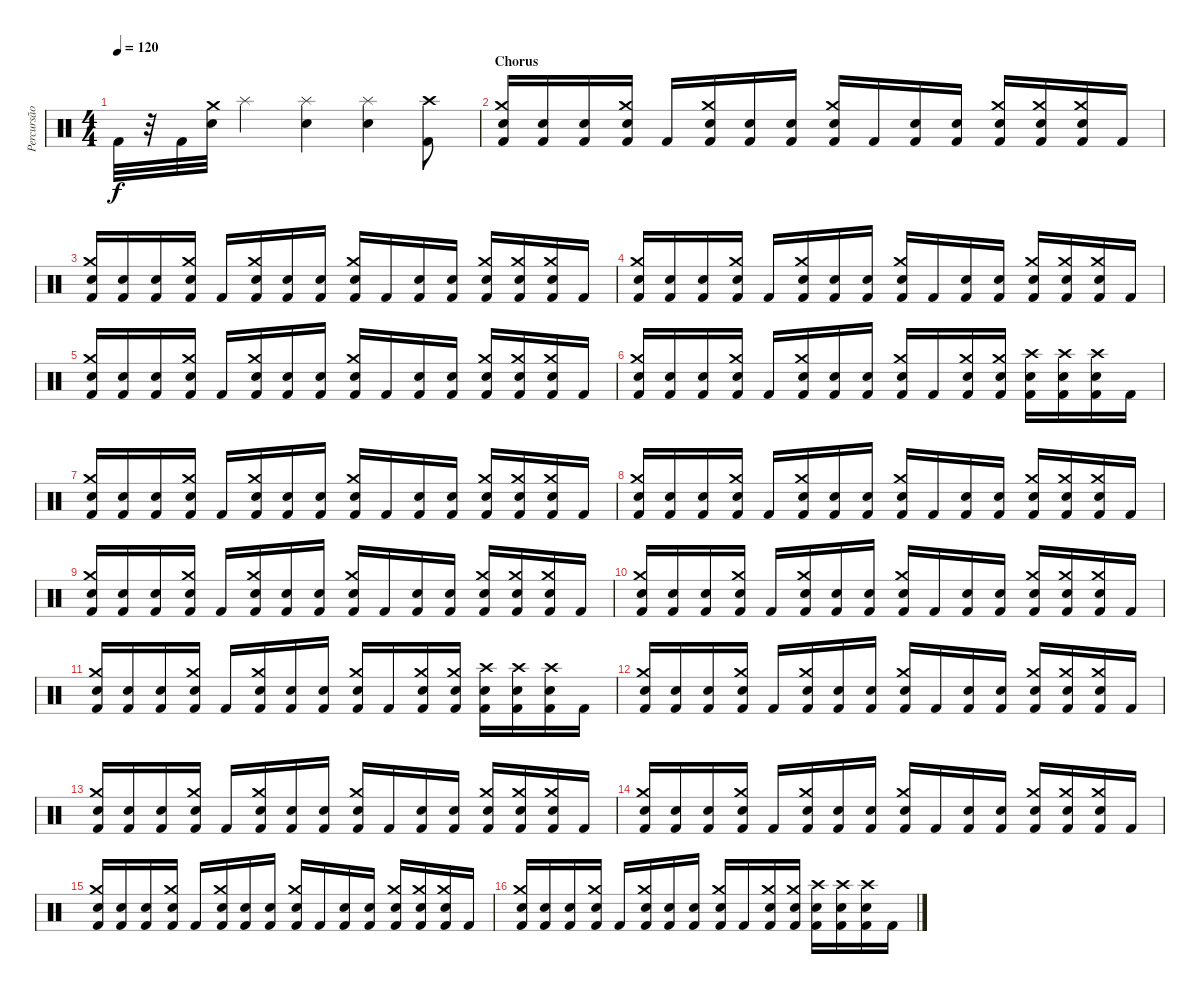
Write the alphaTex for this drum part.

\track ("Percursão" "Percursão") {instrument percussion}
\staff {score}
\articulation defaults
\ts (4 4)
\tempo 120
\clef neutral
\ks c "Kick (hit) 2".32{dy f}
r.32 "Kick (hit) 2".32 ("Crash medium (hit)" "Snare (hit) 2").32 "Splash (hit)".4 ("Snare (hit) 2" "Splash (hit)").4 ("Snare (hit) 2" "Splash (hit)").4 ("Kick (hit) 2" "Crash high (hit)").8 |
\section ("" "Chorus")
("Kick (hit) 2" "Snare (hit) 2" "Crash medium (hit)").16 ("Kick (hit) 2" "Snare (hit) 2").16 ("Kick (hit) 2" "Snare (hit) 2").16 ("Kick (hit) 2" "Snare (hit) 2" "Crash medium (hit)").16 "Kick (hit) 2".16 ("Kick (hit) 2" "Snare (hit) 2" "Crash medium (hit)").16 ("Kick (hit) 2" "Snare (hit) 2").16 ("Kick (hit) 2" "Snare (hit) 2").16 ("Kick (hit) 2" "Snare (hit) 2" "Crash medium (hit)").16 "Kick (hit) 2".16 ("Kick (hit) 2" "Snare (hit) 2").16 ("Kick (hit) 2" "Snare (hit) 2").16 ("Kick (hit) 2" "Snare (hit) 2" "Crash medium (hit)").16 ("Kick (hit) 2" "Snare (hit) 2" "Crash medium (hit)").16 ("Kick (hit) 2" "Snare (hit) 2" "Crash medium (hit)").16 "Kick (hit) 2".16 |
("Kick (hit) 2" "Snare (hit) 2" "Crash medium (hit)").16 ("Kick (hit) 2" "Snare (hit) 2").16 ("Kick (hit) 2" "Snare (hit) 2").16 ("Kick (hit) 2" "Snare (hit) 2" "Crash medium (hit)").16 "Kick (hit) 2".16 ("Kick (hit) 2" "Snare (hit) 2" "Crash medium (hit)").16 ("Kick (hit) 2" "Snare (hit) 2").16 ("Kick (hit) 2" "Snare (hit) 2").16 ("Kick (hit) 2" "Snare (hit) 2" "Crash medium (hit)").16 "Kick (hit) 2".16 ("Kick (hit) 2" "Snare (hit) 2").16 ("Kick (hit) 2" "Snare (hit) 2").16 ("Kick (hit) 2" "Snare (hit) 2" "Crash medium (hit)").16 ("Kick (hit) 2" "Snare (hit) 2" "Crash medium (hit)").16 ("Kick (hit) 2" "Snare (hit) 2" "Crash medium (hit)").16 "Kick (hit) 2".16 |
("Kick (hit) 2" "Snare (hit) 2" "Crash medium (hit)").16 ("Kick (hit) 2" "Snare (hit) 2").16 ("Kick (hit) 2" "Snare (hit) 2").16 ("Kick (hit) 2" "Snare (hit) 2" "Crash medium (hit)").16 "Kick (hit) 2".16 ("Kick (hit) 2" "Snare (hit) 2" "Crash medium (hit)").16 ("Kick (hit) 2" "Snare (hit) 2").16 ("Kick (hit) 2" "Snare (hit) 2").16 ("Kick (hit) 2" "Snare (hit) 2" "Crash medium (hit)").16 "Kick (hit) 2".16 ("Kick (hit) 2" "Snare (hit) 2").16 ("Kick (hit) 2" "Snare (hit) 2").16 ("Kick (hit) 2" "Snare (hit) 2" "Crash medium (hit)").16 ("Kick (hit) 2" "Snare (hit) 2" "Crash medium (hit)").16 ("Kick (hit) 2" "Snare (hit) 2" "Crash medium (hit)").16 "Kick (hit) 2".16 |
("Kick (hit) 2" "Snare (hit) 2" "Crash medium (hit)").16 ("Kick (hit) 2" "Snare (hit) 2").16 ("Kick (hit) 2" "Snare (hit) 2").16 ("Kick (hit) 2" "Snare (hit) 2" "Crash medium (hit)").16 "Kick (hit) 2".16 ("Kick (hit) 2" "Snare (hit) 2" "Crash medium (hit)").16 ("Kick (hit) 2" "Snare (hit) 2").16 ("Kick (hit) 2" "Snare (hit) 2").16 ("Kick (hit) 2" "Snare (hit) 2" "Crash medium (hit)").16 "Kick (hit) 2".16 ("Kick (hit) 2" "Snare (hit) 2").16 ("Kick (hit) 2" "Snare (hit) 2").16 ("Kick (hit) 2" "Snare (hit) 2" "Crash medium (hit)").16 ("Kick (hit) 2" "Snare (hit) 2" "Crash medium (hit)").16 ("Kick (hit) 2" "Snare (hit) 2" "Crash medium (hit)").16 "Kick (hit) 2".16 |
("Kick (hit) 2" "Snare (hit) 2" "Crash medium (hit)").16 ("Kick (hit) 2" "Snare (hit) 2").16 ("Kick (hit) 2" "Snare (hit) 2").16 ("Kick (hit) 2" "Snare (hit) 2" "Crash medium (hit)").16 "Kick (hit) 2".16 ("Kick (hit) 2" "Snare (hit) 2" "Crash medium (hit)").16 ("Kick (hit) 2" "Snare (hit) 2").16 ("Kick (hit) 2" "Snare (hit) 2").16 ("Kick (hit) 2" "Snare (hit) 2" "Crash medium (hit)").16 "Kick (hit) 2".16 ("Kick (hit) 2" "Snare (hit) 2" "Crash medium (hit)").16 ("Kick (hit) 2" "Snare (hit) 2" "Crash medium (hit)").16 ("Kick (hit) 2" "Snare (hit) 2" "Crash high (hit)").16 ("Kick (hit) 2" "Snare (hit) 2" "Crash high (hit)").16 ("Kick (hit) 2" "Snare (hit) 2" "Crash high (hit)").16 "Kick (hit) 2".16 |
("Kick (hit) 2" "Snare (hit) 2" "Crash medium (hit)").16 ("Kick (hit) 2" "Snare (hit) 2").16 ("Kick (hit) 2" "Snare (hit) 2").16 ("Kick (hit) 2" "Snare (hit) 2" "Crash medium (hit)").16 "Kick (hit) 2".16 ("Kick (hit) 2" "Snare (hit) 2" "Crash medium (hit)").16 ("Kick (hit) 2" "Snare (hit) 2").16 ("Kick (hit) 2" "Snare (hit) 2").16 ("Kick (hit) 2" "Snare (hit) 2" "Crash medium (hit)").16 "Kick (hit) 2".16 ("Kick (hit) 2" "Snare (hit) 2").16 ("Kick (hit) 2" "Snare (hit) 2").16 ("Kick (hit) 2" "Snare (hit) 2" "Crash medium (hit)").16 ("Kick (hit) 2" "Snare (hit) 2" "Crash medium (hit)").16 ("Kick (hit) 2" "Snare (hit) 2" "Crash medium (hit)").16 "Kick (hit) 2".16 |
("Kick (hit) 2" "Snare (hit) 2" "Crash medium (hit)").16 ("Kick (hit) 2" "Snare (hit) 2").16 ("Kick (hit) 2" "Snare (hit) 2").16 ("Kick (hit) 2" "Snare (hit) 2" "Crash medium (hit)").16 "Kick (hit) 2".16 ("Kick (hit) 2" "Snare (hit) 2" "Crash medium (hit)").16 ("Kick (hit) 2" "Snare (hit) 2").16 ("Kick (hit) 2" "Snare (hit) 2").16 ("Kick (hit) 2" "Snare (hit) 2" "Crash medium (hit)").16 "Kick (hit) 2".16 ("Kick (hit) 2" "Snare (hit) 2").16 ("Kick (hit) 2" "Snare (hit) 2").16 ("Kick (hit) 2" "Snare (hit) 2" "Crash medium (hit)").16 ("Kick (hit) 2" "Snare (hit) 2" "Crash medium (hit)").16 ("Kick (hit) 2" "Snare (hit) 2" "Crash medium (hit)").16 "Kick (hit) 2".16 |
("Kick (hit) 2" "Snare (hit) 2" "Crash medium (hit)").16 ("Kick (hit) 2" "Snare (hit) 2").16 ("Kick (hit) 2" "Snare (hit) 2").16 ("Kick (hit) 2" "Snare (hit) 2" "Crash medium (hit)").16 "Kick (hit) 2".16 ("Kick (hit) 2" "Snare (hit) 2" "Crash medium (hit)").16 ("Kick (hit) 2" "Snare (hit) 2").16 ("Kick (hit) 2" "Snare (hit) 2").16 ("Kick (hit) 2" "Snare (hit) 2" "Crash medium (hit)").16 "Kick (hit) 2".16 ("Kick (hit) 2" "Snare (hit) 2").16 ("Kick (hit) 2" "Snare (hit) 2").16 ("Kick (hit) 2" "Snare (hit) 2" "Crash medium (hit)").16 ("Kick (hit) 2" "Snare (hit) 2" "Crash medium (hit)").16 ("Kick (hit) 2" "Snare (hit) 2" "Crash medium (hit)").16 "Kick (hit) 2".16 |
("Kick (hit) 2" "Snare (hit) 2" "Crash medium (hit)").16 ("Kick (hit) 2" "Snare (hit) 2").16 ("Kick (hit) 2" "Snare (hit) 2").16 ("Kick (hit) 2" "Snare (hit) 2" "Crash medium (hit)").16 "Kick (hit) 2".16 ("Kick (hit) 2" "Snare (hit) 2" "Crash medium (hit)").16 ("Kick (hit) 2" "Snare (hit) 2").16 ("Kick (hit) 2" "Snare (hit) 2").16 ("Kick (hit) 2" "Snare (hit) 2" "Crash medium (hit)").16 "Kick (hit) 2".16 ("Kick (hit) 2" "Snare (hit) 2").16 ("Kick (hit) 2" "Snare (hit) 2").16 ("Kick (hit) 2" "Snare (hit) 2" "Crash medium (hit)").16 ("Kick (hit) 2" "Snare (hit) 2" "Crash medium (hit)").16 ("Kick (hit) 2" "Snare (hit) 2" "Crash medium (hit)").16 "Kick (hit) 2".16 |
("Kick (hit) 2" "Snare (hit) 2" "Crash medium (hit)").16 ("Kick (hit) 2" "Snare (hit) 2").16 ("Kick (hit) 2" "Snare (hit) 2").16 ("Kick (hit) 2" "Snare (hit) 2" "Crash medium (hit)").16 "Kick (hit) 2".16 ("Kick (hit) 2" "Snare (hit) 2" "Crash medium (hit)").16 ("Kick (hit) 2" "Snare (hit) 2").16 ("Kick (hit) 2" "Snare (hit) 2").16 ("Kick (hit) 2" "Snare (hit) 2" "Crash medium (hit)").16 "Kick (hit) 2".16 ("Kick (hit) 2" "Snare (hit) 2" "Crash medium (hit)").16 ("Kick (hit) 2" "Snare (hit) 2" "Crash medium (hit)").16 ("Kick (hit) 2" "Snare (hit) 2" "Crash high (hit)").16 ("Kick (hit) 2" "Snare (hit) 2" "Crash high (hit)").16 ("Kick (hit) 2" "Snare (hit) 2" "Crash high (hit)").16 "Kick (hit) 2".16 |
("Kick (hit) 2" "Snare (hit) 2" "Crash medium (hit)").16 ("Kick (hit) 2" "Snare (hit) 2").16 ("Kick (hit) 2" "Snare (hit) 2").16 ("Kick (hit) 2" "Snare (hit) 2" "Crash medium (hit)").16 "Kick (hit) 2".16 ("Kick (hit) 2" "Snare (hit) 2" "Crash medium (hit)").16 ("Kick (hit) 2" "Snare (hit) 2").16 ("Kick (hit) 2" "Snare (hit) 2").16 ("Kick (hit) 2" "Snare (hit) 2" "Crash medium (hit)").16 "Kick (hit) 2".16 ("Kick (hit) 2" "Snare (hit) 2").16 ("Kick (hit) 2" "Snare (hit) 2").16 ("Kick (hit) 2" "Snare (hit) 2" "Crash medium (hit)").16 ("Kick (hit) 2" "Snare (hit) 2" "Crash medium (hit)").16 ("Kick (hit) 2" "Snare (hit) 2" "Crash medium (hit)").16 "Kick (hit) 2".16 |
("Kick (hit) 2" "Snare (hit) 2" "Crash medium (hit)").16 ("Kick (hit) 2" "Snare (hit) 2").16 ("Kick (hit) 2" "Snare (hit) 2").16 ("Kick (hit) 2" "Snare (hit) 2" "Crash medium (hit)").16 "Kick (hit) 2".16 ("Kick (hit) 2" "Snare (hit) 2" "Crash medium (hit)").16 ("Kick (hit) 2" "Snare (hit) 2").16 ("Kick (hit) 2" "Snare (hit) 2").16 ("Kick (hit) 2" "Snare (hit) 2" "Crash medium (hit)").16 "Kick (hit) 2".16 ("Kick (hit) 2" "Snare (hit) 2").16 ("Kick (hit) 2" "Snare (hit) 2").16 ("Kick (hit) 2" "Snare (hit) 2" "Crash medium (hit)").16 ("Kick (hit) 2" "Snare (hit) 2" "Crash medium (hit)").16 ("Kick (hit) 2" "Snare (hit) 2" "Crash medium (hit)").16 "Kick (hit) 2".16 |
("Kick (hit) 2" "Snare (hit) 2" "Crash medium (hit)").16 ("Kick (hit) 2" "Snare (hit) 2").16 ("Kick (hit) 2" "Snare (hit) 2").16 ("Kick (hit) 2" "Snare (hit) 2" "Crash medium (hit)").16 "Kick (hit) 2".16 ("Kick (hit) 2" "Snare (hit) 2" "Crash medium (hit)").16 ("Kick (hit) 2" "Snare (hit) 2").16 ("Kick (hit) 2" "Snare (hit) 2").16 ("Kick (hit) 2" "Snare (hit) 2" "Crash medium (hit)").16 "Kick (hit) 2".16 ("Kick (hit) 2" "Snare (hit) 2").16 ("Kick (hit) 2" "Snare (hit) 2").16 ("Kick (hit) 2" "Snare (hit) 2" "Crash medium (hit)").16 ("Kick (hit) 2" "Snare (hit) 2" "Crash medium (hit)").16 ("Kick (hit) 2" "Snare (hit) 2" "Crash medium (hit)").16 "Kick (hit) 2".16 |
("Kick (hit) 2" "Snare (hit) 2" "Crash medium (hit)").16 ("Kick (hit) 2" "Snare (hit) 2").16 ("Kick (hit) 2" "Snare (hit) 2").16 ("Kick (hit) 2" "Snare (hit) 2" "Crash medium (hit)").16 "Kick (hit) 2".16 ("Kick (hit) 2" "Snare (hit) 2" "Crash medium (hit)").16 ("Kick (hit) 2" "Snare (hit) 2").16 ("Kick (hit) 2" "Snare (hit) 2").16 ("Kick (hit) 2" "Snare (hit) 2" "Crash medium (hit)").16 "Kick (hit) 2".16 ("Kick (hit) 2" "Snare (hit) 2").16 ("Kick (hit) 2" "Snare (hit) 2").16 ("Kick (hit) 2" "Snare (hit) 2" "Crash medium (hit)").16 ("Kick (hit) 2" "Snare (hit) 2" "Crash medium (hit)").16 ("Kick (hit) 2" "Snare (hit) 2" "Crash medium (hit)").16 "Kick (hit) 2".16 |
("Kick (hit) 2" "Snare (hit) 2" "Crash medium (hit)").16 ("Kick (hit) 2" "Snare (hit) 2").16 ("Kick (hit) 2" "Snare (hit) 2").16 ("Kick (hit) 2" "Snare (hit) 2" "Crash medium (hit)").16 "Kick (hit) 2".16 ("Kick (hit) 2" "Snare (hit) 2" "Crash medium (hit)").16 ("Kick (hit) 2" "Snare (hit) 2").16 ("Kick (hit) 2" "Snare (hit) 2").16 ("Kick (hit) 2" "Snare (hit) 2" "Crash medium (hit)").16 "Kick (hit) 2".16 ("Kick (hit) 2" "Snare (hit) 2" "Crash medium (hit)").16 ("Kick (hit) 2" "Snare (hit) 2" "Crash medium (hit)").16 ("Kick (hit) 2" "Snare (hit) 2" "Crash high (hit)").16 ("Kick (hit) 2" "Snare (hit) 2" "Crash high (hit)").16 ("Kick (hit) 2" "Snare (hit) 2" "Crash high (hit)").16 "Kick (hit) 2".16
